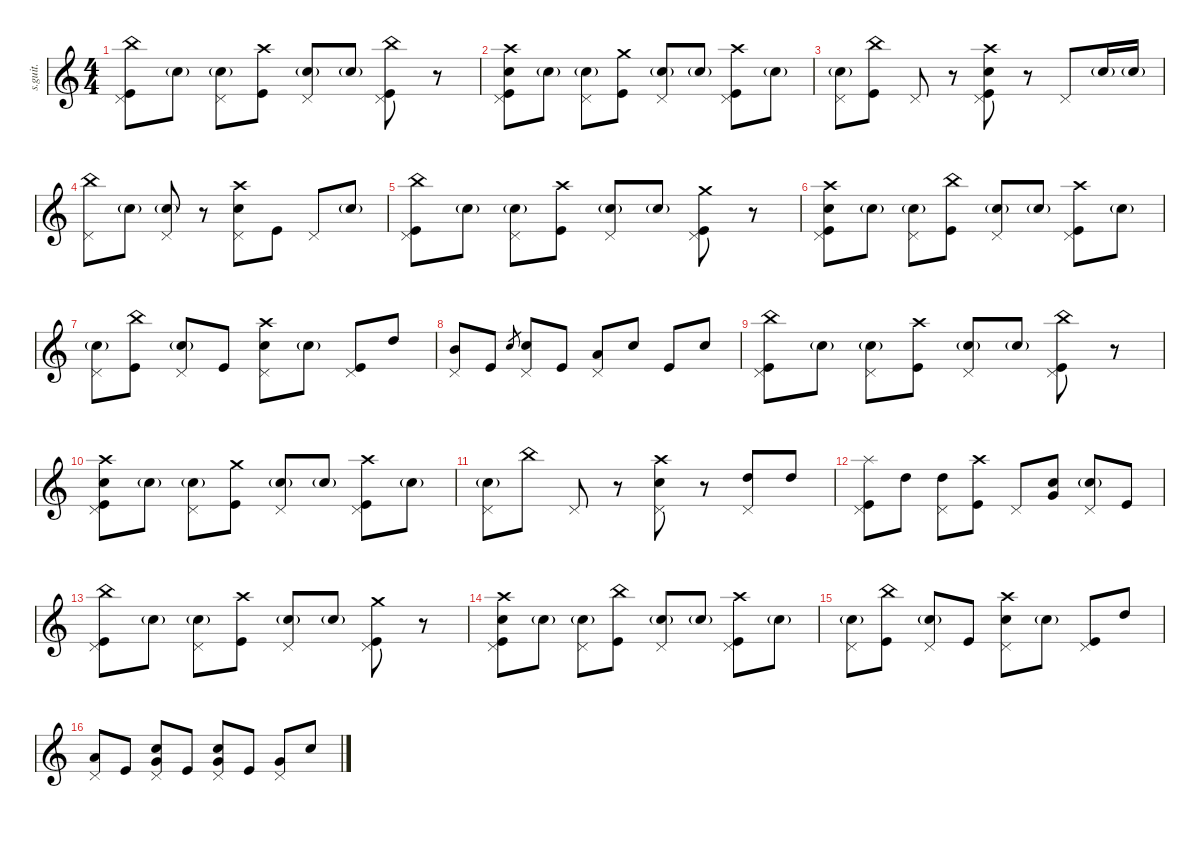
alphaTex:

\defaultSystemsLayout 4
\hideDynamics
\bracketExtendMode nobrackets
\track ("Matt Halpern" "s.guit.") {instrument percussion}
\staff {score}
\articulation defaults
\ts (4 4)
\tempo (213 hide)
\clef g2
\ks c
("China (hit)" "Pedal Hi-Hat (hit)" "Kick (hit)").8{lyrics (0 "") lyrics (1 "") lyrics (2 "") lyrics (3 "") lyrics (4 "") dy mf} "Snare (hit) 2"{g}.8{lyrics (0 "") lyrics (1 "") lyrics (2 "") lyrics (3 "") lyrics (4 "")} ("Pedal Hi-Hat (hit)" "Snare (hit) 2"{g}).8{lyrics (0 "") lyrics (1 "") lyrics (2 "") lyrics (3 "") lyrics (4 "")} ("Crash high (hit)" "Kick (hit)").8{lyrics (0 "") lyrics (1 "") lyrics (2 "") lyrics (3 "") lyrics (4 "")} ("Pedal Hi-Hat (hit)" "Snare (hit) 2"{g}).8{lyrics (0 "") lyrics (1 "") lyrics (2 "") lyrics (3 "") lyrics (4 "")} "Snare (hit) 2"{g}.8{lyrics (0 "") lyrics (1 "") lyrics (2 "") lyrics (3 "") lyrics (4 "")} ("China (hit)" "Pedal Hi-Hat (hit)" "Kick (hit)").8{lyrics (0 "") lyrics (1 "") lyrics (2 "") lyrics (3 "") lyrics (4 "")} r.8 |
("Crash high (hit)" "Pedal Hi-Hat (hit)" "Snare (hit) 2" "Kick (hit)").8{lyrics (0 "") lyrics (1 "") lyrics (2 "") lyrics (3 "") lyrics (4 "")} "Snare (hit) 2"{g}.8{lyrics (0 "") lyrics (1 "") lyrics (2 "") lyrics (3 "") lyrics (4 "")} ("Pedal Hi-Hat (hit)" "Snare (hit) 2"{g}).8{lyrics (0 "") lyrics (1 "") lyrics (2 "") lyrics (3 "") lyrics (4 "")} ("Crash medium (hit)" "Kick (hit)").8{lyrics (0 "") lyrics (1 "") lyrics (2 "") lyrics (3 "") lyrics (4 "")} ("Pedal Hi-Hat (hit)" "Snare (hit) 2"{g}).8{lyrics (0 "") lyrics (1 "") lyrics (2 "") lyrics (3 "") lyrics (4 "")} "Snare (hit) 2"{g}.8{lyrics (0 "") lyrics (1 "") lyrics (2 "") lyrics (3 "") lyrics (4 "")} ("Crash high (hit)" "Pedal Hi-Hat (hit)" "Kick (hit)").8{lyrics (0 "") lyrics (1 "") lyrics (2 "") lyrics (3 "") lyrics (4 "")} "Snare (hit) 2"{g}.8{lyrics (0 "") lyrics (1 "") lyrics (2 "") lyrics (3 "") lyrics (4 "")} |
("Pedal Hi-Hat (hit)" "Snare (hit) 2"{g}).8{lyrics (0 "") lyrics (1 "") lyrics (2 "") lyrics (3 "") lyrics (4 "")} ("China (hit)" "Kick (hit)").8{lyrics (0 "") lyrics (1 "") lyrics (2 "") lyrics (3 "") lyrics (4 "")} "Pedal Hi-Hat (hit)".8{lyrics (0 "") lyrics (1 "") lyrics (2 "") lyrics (3 "") lyrics (4 "")} r.8 ("Crash high (hit)" "Pedal Hi-Hat (hit)" "Snare (hit) 2" "Kick (hit)").8{lyrics (0 "") lyrics (1 "") lyrics (2 "") lyrics (3 "") lyrics (4 "")} r.8 "Pedal Hi-Hat (hit)".8{lyrics (0 "") lyrics (1 "") lyrics (2 "") lyrics (3 "") lyrics (4 "")} "Snare (hit) 2"{g}.16{lyrics (0 "") lyrics (1 "") lyrics (2 "") lyrics (3 "") lyrics (4 "")} "Snare (hit) 2"{g}.16{lyrics (0 "") lyrics (1 "") lyrics (2 "") lyrics (3 "") lyrics (4 "")} |
("China (hit)" "Pedal Hi-Hat (hit)").8{lyrics (0 "") lyrics (1 "") lyrics (2 "") lyrics (3 "") lyrics (4 "")} "Snare (hit) 2"{g}.8{lyrics (0 "") lyrics (1 "") lyrics (2 "") lyrics (3 "") lyrics (4 "")} ("Pedal Hi-Hat (hit)" "Snare (hit) 2"{g}).8{lyrics (0 "") lyrics (1 "") lyrics (2 "") lyrics (3 "") lyrics (4 "")} r.8 ("Crash high (hit)" "Pedal Hi-Hat (hit)" "Snare (hit) 2").8{lyrics (0 "") lyrics (1 "") lyrics (2 "") lyrics (3 "") lyrics (4 "")} "Kick (hit)".8{lyrics (0 "") lyrics (1 "") lyrics (2 "") lyrics (3 "") lyrics (4 "")} "Pedal Hi-Hat (hit)".8{lyrics (0 "") lyrics (1 "") lyrics (2 "") lyrics (3 "") lyrics (4 "")} "Snare (hit) 2"{g}.8{lyrics (0 "") lyrics (1 "") lyrics (2 "") lyrics (3 "") lyrics (4 "")} |
("China (hit)" "Pedal Hi-Hat (hit)" "Kick (hit)").8{lyrics (0 "") lyrics (1 "") lyrics (2 "") lyrics (3 "") lyrics (4 "")} "Snare (hit) 2"{g}.8{lyrics (0 "") lyrics (1 "") lyrics (2 "") lyrics (3 "") lyrics (4 "")} ("Pedal Hi-Hat (hit)" "Snare (hit) 2"{g}).8{lyrics (0 "") lyrics (1 "") lyrics (2 "") lyrics (3 "") lyrics (4 "")} ("Crash high (hit)" "Kick (hit)").8{lyrics (0 "") lyrics (1 "") lyrics (2 "") lyrics (3 "") lyrics (4 "")} ("Pedal Hi-Hat (hit)" "Snare (hit) 2"{g}).8{lyrics (0 "") lyrics (1 "") lyrics (2 "") lyrics (3 "") lyrics (4 "")} "Snare (hit) 2"{g}.8{lyrics (0 "") lyrics (1 "") lyrics (2 "") lyrics (3 "") lyrics (4 "")} ("Crash medium (hit)" "Pedal Hi-Hat (hit)" "Kick (hit)").8{lyrics (0 "") lyrics (1 "") lyrics (2 "") lyrics (3 "") lyrics (4 "")} r.8 |
("Crash high (hit)" "Pedal Hi-Hat (hit)" "Snare (hit) 2" "Kick (hit)").8{lyrics (0 "") lyrics (1 "") lyrics (2 "") lyrics (3 "") lyrics (4 "")} "Snare (hit) 2"{g}.8{lyrics (0 "") lyrics (1 "") lyrics (2 "") lyrics (3 "") lyrics (4 "")} ("Pedal Hi-Hat (hit)" "Snare (hit) 2"{g}).8{lyrics (0 "") lyrics (1 "") lyrics (2 "") lyrics (3 "") lyrics (4 "")} ("China (hit)" "Kick (hit)").8{lyrics (0 "") lyrics (1 "") lyrics (2 "") lyrics (3 "") lyrics (4 "")} ("Pedal Hi-Hat (hit)" "Snare (hit) 2"{g}).8{lyrics (0 "") lyrics (1 "") lyrics (2 "") lyrics (3 "") lyrics (4 "")} "Snare (hit) 2"{g}.8{lyrics (0 "") lyrics (1 "") lyrics (2 "") lyrics (3 "") lyrics (4 "")} ("Crash high (hit)" "Pedal Hi-Hat (hit)" "Kick (hit)").8{lyrics (0 "") lyrics (1 "") lyrics (2 "") lyrics (3 "") lyrics (4 "")} "Snare (hit) 2"{g}.8{lyrics (0 "") lyrics (1 "") lyrics (2 "") lyrics (3 "") lyrics (4 "")} |
("Pedal Hi-Hat (hit)" "Snare (hit) 2"{g}).8{lyrics (0 "") lyrics (1 "") lyrics (2 "") lyrics (3 "") lyrics (4 "")} ("China (hit)" "Kick (hit)").8{lyrics (0 "") lyrics (1 "") lyrics (2 "") lyrics (3 "") lyrics (4 "")} ("Pedal Hi-Hat (hit)" "Snare (hit) 2"{g}).8{lyrics (0 "") lyrics (1 "") lyrics (2 "") lyrics (3 "") lyrics (4 "")} "Kick (hit)".8{lyrics (0 "") lyrics (1 "") lyrics (2 "") lyrics (3 "") lyrics (4 "")} ("Crash high (hit)" "Pedal Hi-Hat (hit)" "Snare (hit) 2").8{lyrics (0 "") lyrics (1 "") lyrics (2 "") lyrics (3 "") lyrics (4 "")} "Snare (hit) 2"{g}.8{lyrics (0 "") lyrics (1 "") lyrics (2 "") lyrics (3 "") lyrics (4 "")} ("Pedal Hi-Hat (hit)" "Kick (hit)").8{lyrics (0 "") lyrics (1 "") lyrics (2 "") lyrics (3 "") lyrics (4 "")} "High Tom (hit)".8{lyrics (0 "") lyrics (1 "") lyrics (2 "") lyrics (3 "") lyrics (4 "")} |
("Pedal Hi-Hat (hit)" "Mid Tom (hit)").8{lyrics (0 "") lyrics (1 "") lyrics (2 "") lyrics (3 "") lyrics (4 "")} "Kick (hit)".8{lyrics (0 "") lyrics (1 "") lyrics (2 "") lyrics (3 "") lyrics (4 "")} "Snare (hit) 2".8{lyrics (0 "") lyrics (1 "") lyrics (2 "") lyrics (3 "") lyrics (4 "") gr} ("Pedal Hi-Hat (hit)" "Snare (hit) 2").8{lyrics (0 "") lyrics (1 "") lyrics (2 "") lyrics (3 "") lyrics (4 "")} "Kick (hit)".8{lyrics (0 "") lyrics (1 "") lyrics (2 "") lyrics (3 "") lyrics (4 "")} ("Pedal Hi-Hat (hit)" "Low Tom (hit)").8{lyrics (0 "") lyrics (1 "") lyrics (2 "") lyrics (3 "") lyrics (4 "")} "Snare (hit) 2".8{lyrics (0 "") lyrics (1 "") lyrics (2 "") lyrics (3 "") lyrics (4 "")} "Kick (hit)".8{lyrics (0 "") lyrics (1 "") lyrics (2 "") lyrics (3 "") lyrics (4 "")} "Snare (hit) 2".8{lyrics (0 "") lyrics (1 "") lyrics (2 "") lyrics (3 "") lyrics (4 "")} |
("China (hit)" "Pedal Hi-Hat (hit)" "Kick (hit)").8{lyrics (0 "") lyrics (1 "") lyrics (2 "") lyrics (3 "") lyrics (4 "")} "Snare (hit) 2"{g}.8{lyrics (0 "") lyrics (1 "") lyrics (2 "") lyrics (3 "") lyrics (4 "")} ("Pedal Hi-Hat (hit)" "Snare (hit) 2"{g}).8{lyrics (0 "") lyrics (1 "") lyrics (2 "") lyrics (3 "") lyrics (4 "")} ("Crash high (hit)" "Kick (hit)").8{lyrics (0 "") lyrics (1 "") lyrics (2 "") lyrics (3 "") lyrics (4 "")} ("Pedal Hi-Hat (hit)" "Snare (hit) 2"{g}).8{lyrics (0 "") lyrics (1 "") lyrics (2 "") lyrics (3 "") lyrics (4 "")} "Snare (hit) 2"{g}.8{lyrics (0 "") lyrics (1 "") lyrics (2 "") lyrics (3 "") lyrics (4 "")} ("China (hit)" "Pedal Hi-Hat (hit)" "Kick (hit)").8{lyrics (0 "") lyrics (1 "") lyrics (2 "") lyrics (3 "") lyrics (4 "")} r.8 |
("Crash high (hit)" "Pedal Hi-Hat (hit)" "Snare (hit) 2" "Kick (hit)").8{lyrics (0 "") lyrics (1 "") lyrics (2 "") lyrics (3 "") lyrics (4 "")} "Snare (hit) 2"{g}.8{lyrics (0 "") lyrics (1 "") lyrics (2 "") lyrics (3 "") lyrics (4 "")} ("Pedal Hi-Hat (hit)" "Snare (hit) 2"{g}).8{lyrics (0 "") lyrics (1 "") lyrics (2 "") lyrics (3 "") lyrics (4 "")} ("Crash medium (hit)" "Kick (hit)").8{lyrics (0 "") lyrics (1 "") lyrics (2 "") lyrics (3 "") lyrics (4 "")} ("Pedal Hi-Hat (hit)" "Snare (hit) 2"{g}).8{lyrics (0 "") lyrics (1 "") lyrics (2 "") lyrics (3 "") lyrics (4 "")} "Snare (hit) 2"{g}.8{lyrics (0 "") lyrics (1 "") lyrics (2 "") lyrics (3 "") lyrics (4 "")} ("Crash high (hit)" "Pedal Hi-Hat (hit)" "Kick (hit)").8{lyrics (0 "") lyrics (1 "") lyrics (2 "") lyrics (3 "") lyrics (4 "")} "Snare (hit) 2"{g}.8{lyrics (0 "") lyrics (1 "") lyrics (2 "") lyrics (3 "") lyrics (4 "")} |
("Pedal Hi-Hat (hit)" "Snare (hit) 2"{g}).8{lyrics (0 "") lyrics (1 "") lyrics (2 "") lyrics (3 "") lyrics (4 "")} "China (hit)".8{lyrics (0 "") lyrics (1 "") lyrics (2 "") lyrics (3 "") lyrics (4 "")} "Pedal Hi-Hat (hit)".8{lyrics (0 "") lyrics (1 "") lyrics (2 "") lyrics (3 "") lyrics (4 "")} r.8 ("Crash high (hit)" "Pedal Hi-Hat (hit)" "Snare (hit) 2").8{lyrics (0 "") lyrics (1 "") lyrics (2 "") lyrics (3 "") lyrics (4 "")} r.8 ("Pedal Hi-Hat (hit)" "High Tom (hit)").8{lyrics (0 "") lyrics (1 "") lyrics (2 "") lyrics (3 "") lyrics (4 "")} "High Tom (hit)".8{lyrics (0 "") lyrics (1 "") lyrics (2 "") lyrics (3 "") lyrics (4 "")} |
("Splash (hit)" "Pedal Hi-Hat (hit)" "Kick (hit)").8{lyrics (0 "") lyrics (1 "") lyrics (2 "") lyrics (3 "") lyrics (4 "")} "High Tom (hit)".8{lyrics (0 "") lyrics (1 "") lyrics (2 "") lyrics (3 "") lyrics (4 "")} ("Pedal Hi-Hat (hit)" "High Tom (hit)").8{lyrics (0 "") lyrics (1 "") lyrics (2 "") lyrics (3 "") lyrics (4 "")} ("Crash high (hit)" "Kick (hit)").8{lyrics (0 "") lyrics (1 "") lyrics (2 "") lyrics (3 "") lyrics (4 "")} "Pedal Hi-Hat (hit)".8{lyrics (0 "") lyrics (1 "") lyrics (2 "") lyrics (3 "") lyrics (4 "")} ("Snare (hit) 2" "Very Low Tom (hit)").8{lyrics (0 "") lyrics (1 "") lyrics (2 "") lyrics (3 "") lyrics (4 "")} ("Pedal Hi-Hat (hit)" "Snare (hit) 2"{g}).8{lyrics (0 "") lyrics (1 "") lyrics (2 "") lyrics (3 "") lyrics (4 "")} "Kick (hit)".8{lyrics (0 "") lyrics (1 "") lyrics (2 "") lyrics (3 "") lyrics (4 "")} |
("China (hit)" "Pedal Hi-Hat (hit)" "Kick (hit)").8{lyrics (0 "") lyrics (1 "") lyrics (2 "") lyrics (3 "") lyrics (4 "")} "Snare (hit) 2"{g}.8{lyrics (0 "") lyrics (1 "") lyrics (2 "") lyrics (3 "") lyrics (4 "")} ("Pedal Hi-Hat (hit)" "Snare (hit) 2"{g}).8{lyrics (0 "") lyrics (1 "") lyrics (2 "") lyrics (3 "") lyrics (4 "")} ("Crash high (hit)" "Kick (hit)").8{lyrics (0 "") lyrics (1 "") lyrics (2 "") lyrics (3 "") lyrics (4 "")} ("Pedal Hi-Hat (hit)" "Snare (hit) 2"{g}).8{lyrics (0 "") lyrics (1 "") lyrics (2 "") lyrics (3 "") lyrics (4 "")} "Snare (hit) 2"{g}.8{lyrics (0 "") lyrics (1 "") lyrics (2 "") lyrics (3 "") lyrics (4 "")} ("Crash medium (hit)" "Pedal Hi-Hat (hit)" "Kick (hit)").8{lyrics (0 "") lyrics (1 "") lyrics (2 "") lyrics (3 "") lyrics (4 "")} r.8 |
("Crash high (hit)" "Pedal Hi-Hat (hit)" "Snare (hit) 2" "Kick (hit)").8{lyrics (0 "") lyrics (1 "") lyrics (2 "") lyrics (3 "") lyrics (4 "")} "Snare (hit) 2"{g}.8{lyrics (0 "") lyrics (1 "") lyrics (2 "") lyrics (3 "") lyrics (4 "")} ("Pedal Hi-Hat (hit)" "Snare (hit) 2"{g}).8{lyrics (0 "") lyrics (1 "") lyrics (2 "") lyrics (3 "") lyrics (4 "")} ("China (hit)" "Kick (hit)").8{lyrics (0 "") lyrics (1 "") lyrics (2 "") lyrics (3 "") lyrics (4 "")} ("Pedal Hi-Hat (hit)" "Snare (hit) 2"{g}).8{lyrics (0 "") lyrics (1 "") lyrics (2 "") lyrics (3 "") lyrics (4 "")} "Snare (hit) 2"{g}.8{lyrics (0 "") lyrics (1 "") lyrics (2 "") lyrics (3 "") lyrics (4 "")} ("Crash high (hit)" "Pedal Hi-Hat (hit)" "Kick (hit)").8{lyrics (0 "") lyrics (1 "") lyrics (2 "") lyrics (3 "") lyrics (4 "")} "Snare (hit) 2"{g}.8{lyrics (0 "") lyrics (1 "") lyrics (2 "") lyrics (3 "") lyrics (4 "")} |
("Pedal Hi-Hat (hit)" "Snare (hit) 2"{g}).8{lyrics (0 "") lyrics (1 "") lyrics (2 "") lyrics (3 "") lyrics (4 "")} ("China (hit)" "Kick (hit)").8{lyrics (0 "") lyrics (1 "") lyrics (2 "") lyrics (3 "") lyrics (4 "")} ("Pedal Hi-Hat (hit)" "Snare (hit) 2"{g}).8{lyrics (0 "") lyrics (1 "") lyrics (2 "") lyrics (3 "") lyrics (4 "")} "Kick (hit)".8{lyrics (0 "") lyrics (1 "") lyrics (2 "") lyrics (3 "") lyrics (4 "")} ("Crash high (hit)" "Pedal Hi-Hat (hit)" "Snare (hit) 2").8{lyrics (0 "") lyrics (1 "") lyrics (2 "") lyrics (3 "") lyrics (4 "")} "Snare (hit) 2"{g}.8{lyrics (0 "") lyrics (1 "") lyrics (2 "") lyrics (3 "") lyrics (4 "")} ("Pedal Hi-Hat (hit)" "Kick (hit)").8{lyrics (0 "") lyrics (1 "") lyrics (2 "") lyrics (3 "") lyrics (4 "")} "High Tom (hit)".8{lyrics (0 "") lyrics (1 "") lyrics (2 "") lyrics (3 "") lyrics (4 "")} |
("Pedal Hi-Hat (hit)" "Low Tom (hit)").8{lyrics (0 "") lyrics (1 "") lyrics (2 "") lyrics (3 "") lyrics (4 "")} "Kick (hit)".8{lyrics (0 "") lyrics (1 "") lyrics (2 "") lyrics (3 "") lyrics (4 "")} ("Pedal Hi-Hat (hit)" "Snare (hit) 2" "Very Low Tom (hit)").8{lyrics (0 "") lyrics (1 "") lyrics (2 "") lyrics (3 "") lyrics (4 "")} "Kick (hit)".8{lyrics (0 "") lyrics (1 "") lyrics (2 "") lyrics (3 "") lyrics (4 "")} ("Pedal Hi-Hat (hit)" "Snare (hit) 2" "Very Low Tom (hit)").8{lyrics (0 "") lyrics (1 "") lyrics (2 "") lyrics (3 "") lyrics (4 "")} "Kick (hit)".8{lyrics (0 "") lyrics (1 "") lyrics (2 "") lyrics (3 "") lyrics (4 "")} ("Pedal Hi-Hat (hit)" "Very Low Tom (hit)").8{lyrics (0 "") lyrics (1 "") lyrics (2 "") lyrics (3 "") lyrics (4 "")} "Snare (hit) 2".8{lyrics (0 "") lyrics (1 "") lyrics (2 "") lyrics (3 "") lyrics (4 "")}
